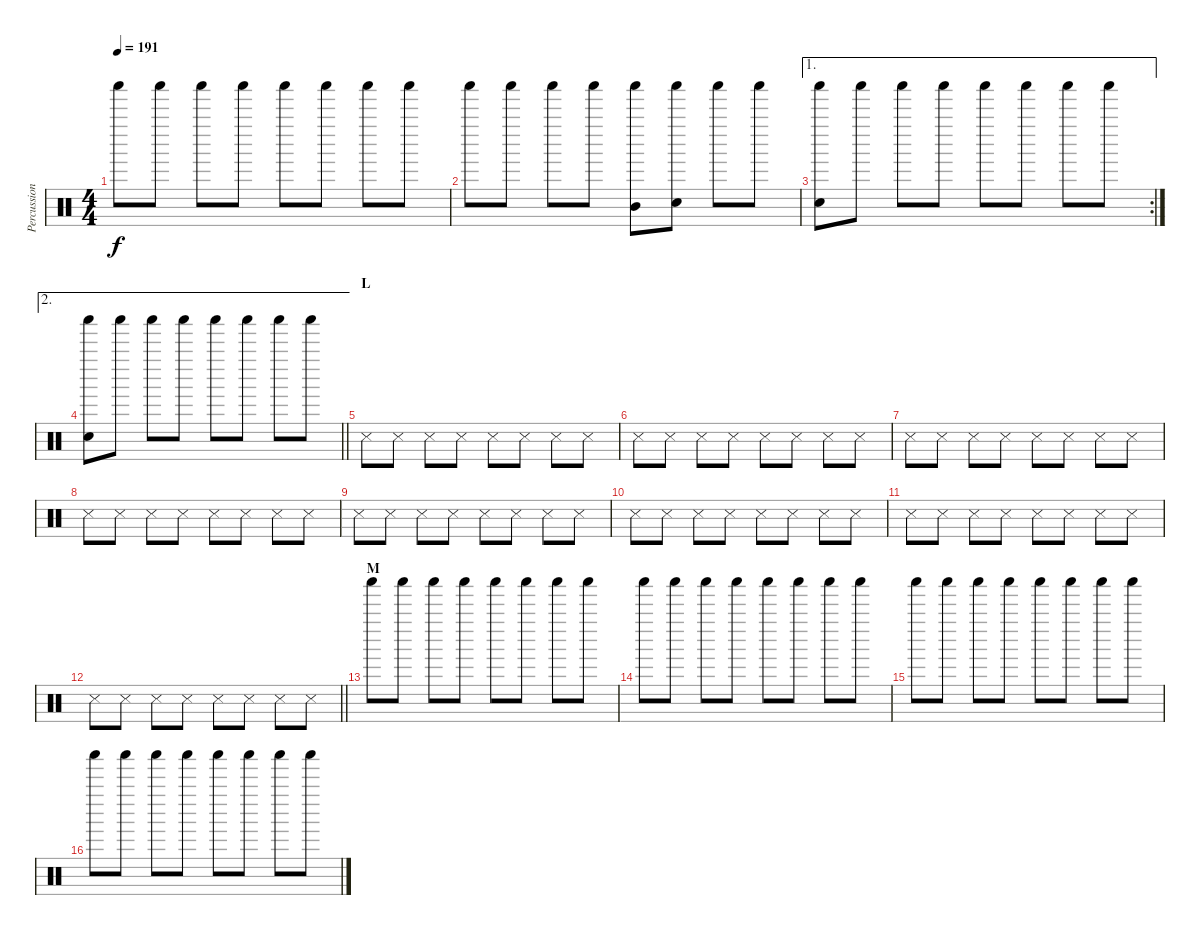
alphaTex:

\track ("Percussion" "Percussion") {instrument percussion}
\staff {score}
\articulation defaults
\ts (4 4)
\tempo 191
\clef neutral
\ks c "Shaker (hit)".8{dy f} "Shaker (hit)".8 "Shaker (hit)".8 "Shaker (hit)".8 "Shaker (hit)".8 "Shaker (hit)".8 "Shaker (hit)".8 "Shaker (hit)".8
|
"Shaker (hit)".8 "Shaker (hit)".8 "Shaker (hit)".8 "Shaker (hit)".8 ("Mid Tom (hit)" "Shaker (hit)").8 ("Electric Snare (hit)" "Shaker (hit)").8 "Shaker (hit)".8 "Shaker (hit)".8 |
\ae 1
\rc 2
("Electric Snare (hit)" "Shaker (hit)").8 "Shaker (hit)".8 "Shaker (hit)".8 "Shaker (hit)".8 "Shaker (hit)".8 "Shaker (hit)".8 "Shaker (hit)".8 "Shaker (hit)".8 |
\ae 2
\barLineRight lightlight
("Electric Snare (hit)" "Shaker (hit)").8 "Shaker (hit)".8 "Shaker (hit)".8 "Shaker (hit)".8 "Shaker (hit)".8 "Shaker (hit)".8 "Shaker (hit)".8 "Shaker (hit)".8 |
\section ("" "L")
"Snare (side stick) 3".8 "Snare (side stick) 3".8 "Snare (side stick) 3".8 "Snare (side stick) 3".8 "Snare (side stick) 3".8 "Snare (side stick) 3".8 "Snare (side stick) 3".8 "Snare (side stick) 3".8 |
"Snare (side stick) 3".8 "Snare (side stick) 3".8 "Snare (side stick) 3".8 "Snare (side stick) 3".8 "Snare (side stick) 3".8 "Snare (side stick) 3".8 "Snare (side stick) 3".8 "Snare (side stick) 3".8 |
"Snare (side stick) 3".8 "Snare (side stick) 3".8 "Snare (side stick) 3".8 "Snare (side stick) 3".8 "Snare (side stick) 3".8 "Snare (side stick) 3".8 "Snare (side stick) 3".8 "Snare (side stick) 3".8 |
"Snare (side stick) 3".8 "Snare (side stick) 3".8 "Snare (side stick) 3".8 "Snare (side stick) 3".8 "Snare (side stick) 3".8 "Snare (side stick) 3".8 "Snare (side stick) 3".8 "Snare (side stick) 3".8 |
"Snare (side stick) 3".8 "Snare (side stick) 3".8 "Snare (side stick) 3".8 "Snare (side stick) 3".8 "Snare (side stick) 3".8 "Snare (side stick) 3".8 "Snare (side stick) 3".8 "Snare (side stick) 3".8 |
"Snare (side stick) 3".8 "Snare (side stick) 3".8 "Snare (side stick) 3".8 "Snare (side stick) 3".8 "Snare (side stick) 3".8 "Snare (side stick) 3".8 "Snare (side stick) 3".8 "Snare (side stick) 3".8 |
"Snare (side stick) 3".8 "Snare (side stick) 3".8 "Snare (side stick) 3".8 "Snare (side stick) 3".8 "Snare (side stick) 3".8 "Snare (side stick) 3".8 "Snare (side stick) 3".8 "Snare (side stick) 3".8 |
\barLineRight lightlight "Snare (side stick) 3".8 "Snare (side stick) 3".8 "Snare (side stick) 3".8 "Snare (side stick) 3".8 "Snare (side stick) 3".8 "Snare (side stick) 3".8 "Snare (side stick) 3".8 "Snare (side stick) 3".8
|
\section ("" "M")
"Shaker (hit)".8 "Shaker (hit)".8 "Shaker (hit)".8 "Shaker (hit)".8 "Shaker (hit)".8 "Shaker (hit)".8 "Shaker (hit)".8 "Shaker (hit)".8 |
"Shaker (hit)".8 "Shaker (hit)".8 "Shaker (hit)".8 "Shaker (hit)".8 "Shaker (hit)".8 "Shaker (hit)".8 "Shaker (hit)".8 "Shaker (hit)".8 |
"Shaker (hit)".8 "Shaker (hit)".8 "Shaker (hit)".8 "Shaker (hit)".8 "Shaker (hit)".8 "Shaker (hit)".8 "Shaker (hit)".8 "Shaker (hit)".8 |
"Shaker (hit)".8 "Shaker (hit)".8 "Shaker (hit)".8 "Shaker (hit)".8 "Shaker (hit)".8 "Shaker (hit)".8 "Shaker (hit)".8 "Shaker (hit)".8
